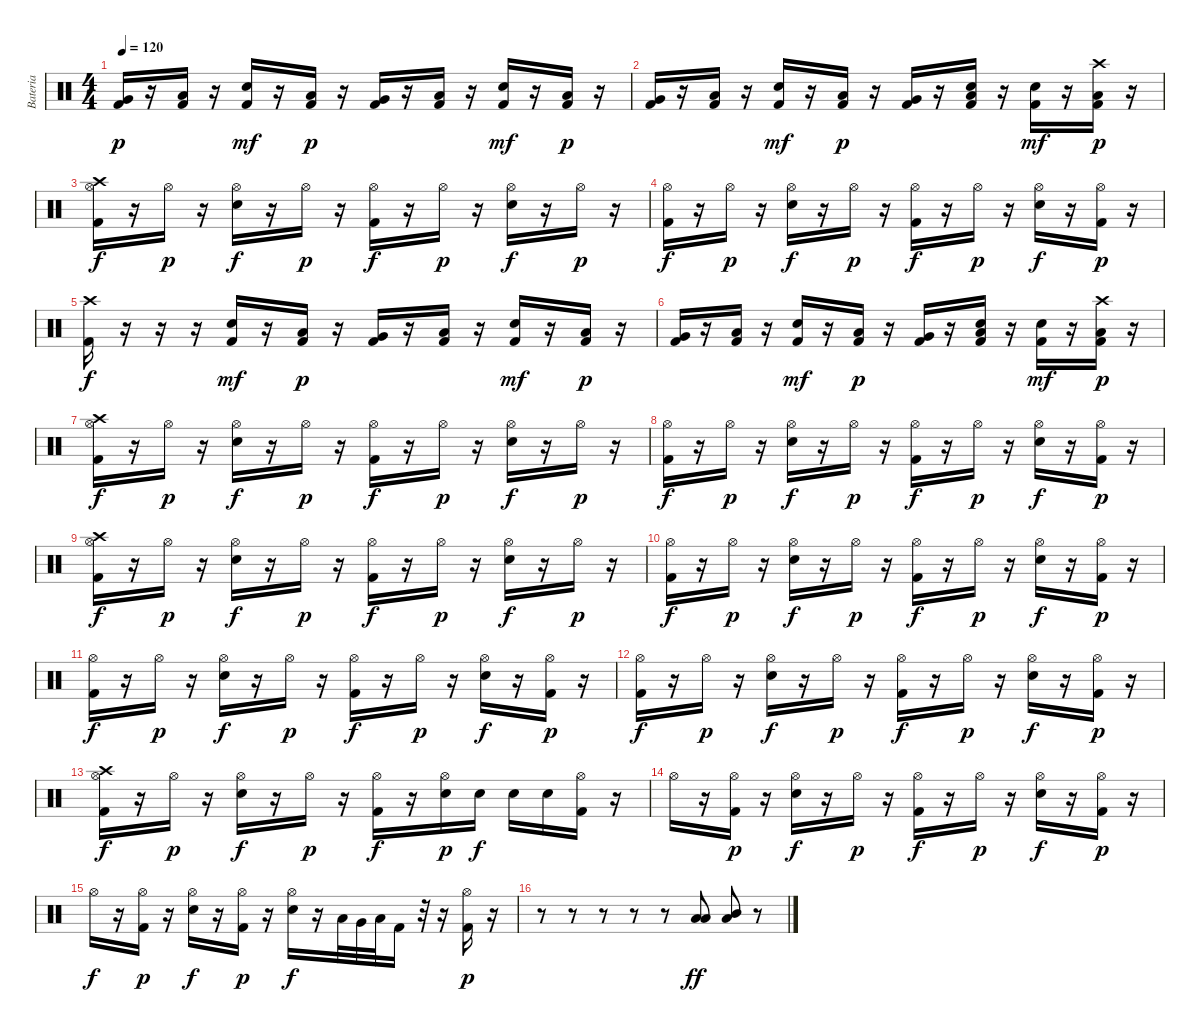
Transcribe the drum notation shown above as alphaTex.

\track ("Bateria" "Bateria") {instrument percussion}
\staff {score}
\articulation defaults
\ts (4 4)
\tempo 120
\clef neutral
\ks c
("Kick (hit) 2" "Very Low Tom (hit)").16{dy p} r.16 ("Kick (hit) 2" "Low Floor Tom (hit)").16 r.16 ("Kick (hit) 2" "Electric Snare (hit)").16{dy mf} r.16 ("Kick (hit) 2" "Low Tom (hit)").16{dy p} r.16 ("Kick (hit) 2" "Very Low Tom (hit)").16 r.16 ("Kick (hit) 2" "Low Floor Tom (hit)").16 r.16 ("Kick (hit) 2" "Electric Snare (hit)").16{dy mf} r.16 ("Kick (hit) 2" "Low Tom (hit)").16{dy p} r.16 |
("Kick (hit) 2" "Very Low Tom (hit)").16 r.16 ("Kick (hit) 2" "Low Floor Tom (hit)").16 r.16 ("Kick (hit) 2" "Electric Snare (hit)").16{dy mf} r.16 ("Kick (hit) 2" "Low Tom (hit)").16{dy p} r.16 ("Kick (hit) 2" "Very Low Tom (hit)").16 r.16 ("Kick (hit) 2" "Low Floor Tom (hit)" "Electric Snare (hit)").16 r.16 ("Kick (hit) 2" "Electric Snare (hit)").16{dy mf} r.16 ("Kick (hit) 2" "Low Tom (hit)" "Crash high (hit)").16{dy p} r.16 |
("Kick (hit) 2" "Crash high (hit)" "Hi-Hat (open)").16{dy f} r.16 "Hi-Hat (open)".16{dy p} r.16 ("Electric Snare (hit)" "Hi-Hat (open)").16{dy f} r.16 "Hi-Hat (open)".16{dy p} r.16 ("Kick (hit) 2" "Hi-Hat (open)").16{dy f} r.16 "Hi-Hat (open)".16{dy p} r.16 ("Electric Snare (hit)" "Hi-Hat (open)").16{dy f} r.16 "Hi-Hat (open)".16{dy p} r.16 |
("Kick (hit) 2" "Hi-Hat (open)").16{dy f} r.16 "Hi-Hat (open)".16{dy p} r.16 ("Electric Snare (hit)" "Hi-Hat (open)").16{dy f} r.16 "Hi-Hat (open)".16{dy p} r.16 ("Kick (hit) 2" "Hi-Hat (open)").16{dy f} r.16 "Hi-Hat (open)".16{dy p} r.16 ("Electric Snare (hit)" "Hi-Hat (open)").16{dy f} r.16 ("Kick (hit) 2" "Hi-Hat (open)").16{dy p} r.16 |
("Kick (hit) 2" "Crash high (hit)").16{dy f} r.16 r.16 r.16 ("Kick (hit) 2" "Electric Snare (hit)").16{dy mf} r.16 ("Kick (hit) 2" "Low Tom (hit)").16{dy p} r.16 ("Kick (hit) 2" "Very Low Tom (hit)").16 r.16 ("Kick (hit) 2" "Low Floor Tom (hit)").16 r.16 ("Kick (hit) 2" "Electric Snare (hit)").16{dy mf} r.16 ("Kick (hit) 2" "Low Tom (hit)").16{dy p} r.16 |
("Kick (hit) 2" "Very Low Tom (hit)").16 r.16 ("Kick (hit) 2" "Low Floor Tom (hit)").16 r.16 ("Kick (hit) 2" "Electric Snare (hit)").16{dy mf} r.16 ("Kick (hit) 2" "Low Tom (hit)").16{dy p} r.16 ("Kick (hit) 2" "Very Low Tom (hit)").16 r.16 ("Kick (hit) 2" "Low Floor Tom (hit)" "Electric Snare (hit)").16 r.16 ("Kick (hit) 2" "Electric Snare (hit)").16{dy mf} r.16 ("Kick (hit) 2" "Low Tom (hit)" "Crash high (hit)").16{dy p} r.16 |
("Kick (hit) 2" "Crash high (hit)" "Hi-Hat (open)").16{dy f} r.16 "Hi-Hat (open)".16{dy p} r.16 ("Electric Snare (hit)" "Hi-Hat (open)").16{dy f} r.16 "Hi-Hat (open)".16{dy p} r.16 ("Kick (hit) 2" "Hi-Hat (open)").16{dy f} r.16 "Hi-Hat (open)".16{dy p} r.16 ("Electric Snare (hit)" "Hi-Hat (open)").16{dy f} r.16 "Hi-Hat (open)".16{dy p} r.16 |
("Kick (hit) 2" "Hi-Hat (open)").16{dy f} r.16 "Hi-Hat (open)".16{dy p} r.16 ("Electric Snare (hit)" "Hi-Hat (open)").16{dy f} r.16 "Hi-Hat (open)".16{dy p} r.16 ("Kick (hit) 2" "Hi-Hat (open)").16{dy f} r.16 "Hi-Hat (open)".16{dy p} r.16 ("Electric Snare (hit)" "Hi-Hat (open)").16{dy f} r.16 ("Kick (hit) 2" "Hi-Hat (open)").16{dy p} r.16 |
("Kick (hit) 2" "Crash high (hit)" "Hi-Hat (open)").16{dy f} r.16 "Hi-Hat (open)".16{dy p} r.16 ("Electric Snare (hit)" "Hi-Hat (open)").16{dy f} r.16 "Hi-Hat (open)".16{dy p} r.16 ("Kick (hit) 2" "Hi-Hat (open)").16{dy f} r.16 "Hi-Hat (open)".16{dy p} r.16 ("Electric Snare (hit)" "Hi-Hat (open)").16{dy f} r.16 "Hi-Hat (open)".16{dy p} r.16 |
("Kick (hit) 2" "Hi-Hat (open)").16{dy f} r.16 "Hi-Hat (open)".16{dy p} r.16 ("Electric Snare (hit)" "Hi-Hat (open)").16{dy f} r.16 "Hi-Hat (open)".16{dy p} r.16 ("Kick (hit) 2" "Hi-Hat (open)").16{dy f} r.16 "Hi-Hat (open)".16{dy p} r.16 ("Electric Snare (hit)" "Hi-Hat (open)").16{dy f} r.16 ("Kick (hit) 2" "Hi-Hat (open)").16{dy p} r.16 |
("Kick (hit) 2" "Hi-Hat (open)").16{dy f} r.16 "Hi-Hat (open)".16{dy p} r.16 ("Electric Snare (hit)" "Hi-Hat (open)").16{dy f} r.16 "Hi-Hat (open)".16{dy p} r.16 ("Kick (hit) 2" "Hi-Hat (open)").16{dy f} r.16 "Hi-Hat (open)".16{dy p} r.16 ("Electric Snare (hit)" "Hi-Hat (open)").16{dy f} r.16 ("Kick (hit) 2" "Hi-Hat (open)").16{dy p} r.16 |
("Kick (hit) 2" "Hi-Hat (open)").16{dy f} r.16 "Hi-Hat (open)".16{dy p} r.16 ("Electric Snare (hit)" "Hi-Hat (open)").16{dy f} r.16 "Hi-Hat (open)".16{dy p} r.16 ("Kick (hit) 2" "Hi-Hat (open)").16{dy f} r.16 "Hi-Hat (open)".16{dy p} r.16 ("Electric Snare (hit)" "Hi-Hat (open)").16{dy f} r.16 ("Kick (hit) 2" "Hi-Hat (open)").16{dy p} r.16 |
("Kick (hit) 2" "Crash high (hit)" "Hi-Hat (open)").16{dy f} r.16 "Hi-Hat (open)".16{dy p} r.16 ("Electric Snare (hit)" "Hi-Hat (open)").16{dy f} r.16 "Hi-Hat (open)".16{dy p} r.16 ("Kick (hit) 2" "Hi-Hat (open)").16{dy f} r.16 ("Electric Snare (hit)" "Hi-Hat (open)").16{dy p} "Electric Snare (hit)".16{dy f} "Electric Snare (hit)".16 "Electric Snare (hit)".16 ("Kick (hit) 2" "Hi-Hat (open)").16 r.16 |
"Hi-Hat (open)".16 r.16 ("Kick (hit) 2" "Hi-Hat (open)").16{dy p} r.16 ("Electric Snare (hit)" "Hi-Hat (open)").16{dy f} r.16 "Hi-Hat (open)".16{dy p} r.16 ("Kick (hit) 2" "Hi-Hat (open)").16{dy f} r.16 "Hi-Hat (open)".16{dy p} r.16 ("Electric Snare (hit)" "Hi-Hat (open)").16{dy f} r.16 ("Kick (hit) 2" "Hi-Hat (open)").16{dy p} r.16 |
"Hi-Hat (open)".16{dy f} r.16 ("Kick (hit) 2" "Hi-Hat (open)").16{dy p} r.16 ("Electric Snare (hit)" "Hi-Hat (open)").16{dy f} r.16 ("Kick (hit) 2" "Hi-Hat (open)").16{dy p} r.16 ("Electric Snare (hit)" "Hi-Hat (open)").16{dy f} r.16 "Low Tom (hit)".32 "Very Low Tom (hit)".32 "Low Floor Tom (hit)".32 "Kick (hit) 2".16 r.32 r.16 ("Kick (hit) 2" "Hi-Hat (open)").16{dy p} r.16 |
r.8 r.8 r.8 r.8 r.8 ("Low Floor Tom (hit)" "Low Tom (hit)").8{dy ff} ("Low Floor Tom (hit)" "Mid Tom (hit)").8 r.8
